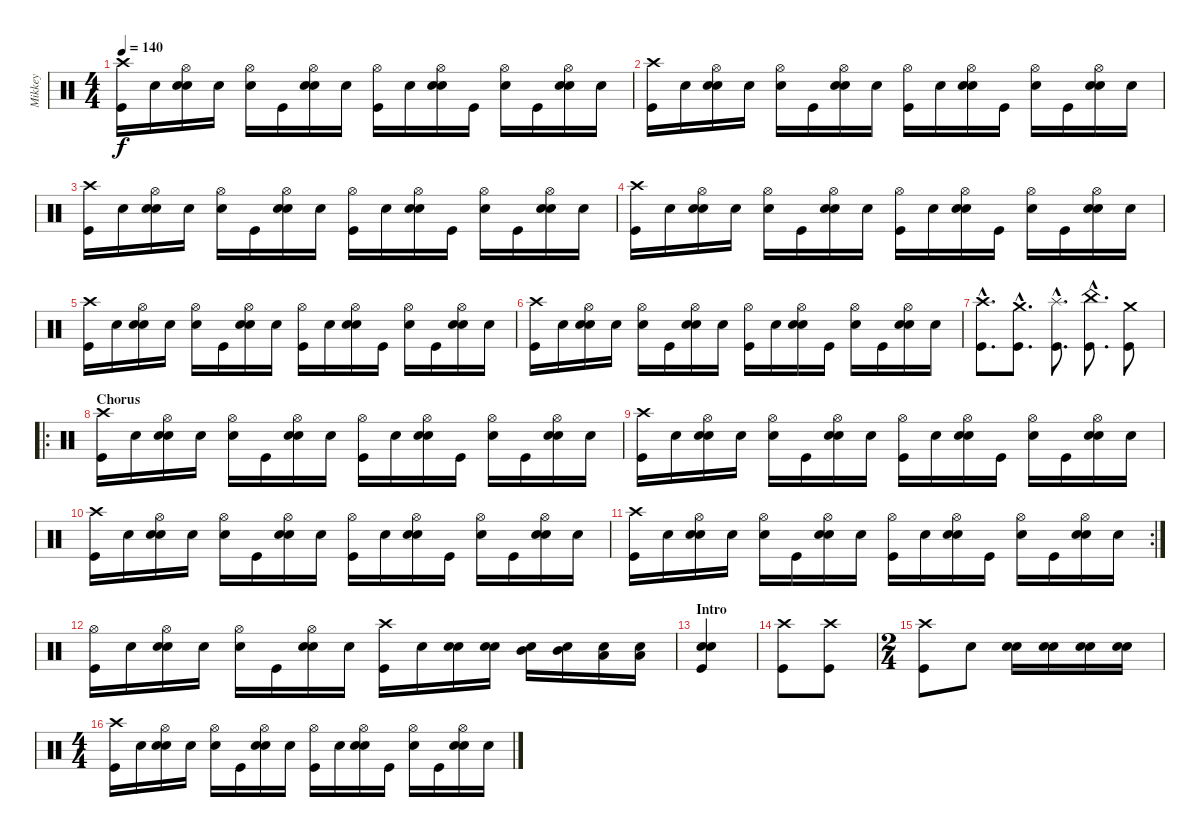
\track ("Mikkey" "Mikkey") {instrument percussion}
\staff {score}
\articulation defaults
\ts (4 4)
\tempo 140
\clef neutral
\ks c
("Crash high (hit)" "Kick (hit)").16{dy f} "Snare (hit)".16 ("Hi-Hat (open)" "Electric Snare (hit)" "Snare (hit)").16 "Snare (hit)".16 ("Hi-Hat (open)" "Snare (hit)").16 "Kick (hit)".16 ("Hi-Hat (open)" "Electric Snare (hit)" "Snare (hit)").16 "Snare (hit)".16 ("Hi-Hat (open)" "Kick (hit)").16 "Snare (hit)".16 ("Hi-Hat (open)" "Electric Snare (hit)" "Snare (hit)").16 "Kick (hit)".16 ("Hi-Hat (open)" "Snare (hit)").16 "Kick (hit)".16 ("Hi-Hat (open)" "Electric Snare (hit)" "Snare (hit)").16 "Snare (hit)".16 |
("Crash high (hit)" "Kick (hit)").16 "Snare (hit)".16 ("Hi-Hat (open)" "Electric Snare (hit)" "Snare (hit)").16 "Snare (hit)".16 ("Hi-Hat (open)" "Snare (hit)").16 "Kick (hit)".16 ("Hi-Hat (open)" "Electric Snare (hit)" "Snare (hit)").16 "Snare (hit)".16 ("Hi-Hat (open)" "Kick (hit)").16 "Snare (hit)".16 ("Hi-Hat (open)" "Electric Snare (hit)" "Snare (hit)").16 "Kick (hit)".16 ("Hi-Hat (open)" "Snare (hit)").16 "Kick (hit)".16 ("Hi-Hat (open)" "Electric Snare (hit)" "Snare (hit)").16 "Snare (hit)".16 |
("Crash high (hit)" "Kick (hit)").16 "Snare (hit)".16 ("Hi-Hat (open)" "Electric Snare (hit)" "Snare (hit)").16 "Snare (hit)".16 ("Hi-Hat (open)" "Snare (hit)").16 "Kick (hit)".16 ("Hi-Hat (open)" "Electric Snare (hit)" "Snare (hit)").16 "Snare (hit)".16 ("Hi-Hat (open)" "Kick (hit)").16 "Snare (hit)".16 ("Hi-Hat (open)" "Electric Snare (hit)" "Snare (hit)").16 "Kick (hit)".16 ("Hi-Hat (open)" "Snare (hit)").16 "Kick (hit)".16 ("Hi-Hat (open)" "Electric Snare (hit)" "Snare (hit)").16 "Snare (hit)".16 |
("Crash high (hit)" "Kick (hit)").16 "Snare (hit)".16 ("Hi-Hat (open)" "Electric Snare (hit)" "Snare (hit)").16 "Snare (hit)".16 ("Hi-Hat (open)" "Snare (hit)").16 "Kick (hit)".16 ("Hi-Hat (open)" "Electric Snare (hit)" "Snare (hit)").16 "Snare (hit)".16 ("Hi-Hat (open)" "Kick (hit)").16 "Snare (hit)".16 ("Hi-Hat (open)" "Electric Snare (hit)" "Snare (hit)").16 "Kick (hit)".16 ("Hi-Hat (open)" "Snare (hit)").16 "Kick (hit)".16 ("Hi-Hat (open)" "Electric Snare (hit)" "Snare (hit)").16 "Snare (hit)".16 |
("Crash high (hit)" "Kick (hit)").16 "Snare (hit)".16 ("Hi-Hat (open)" "Electric Snare (hit)" "Snare (hit)").16 "Snare (hit)".16 ("Hi-Hat (open)" "Snare (hit)").16 "Kick (hit)".16 ("Hi-Hat (open)" "Electric Snare (hit)" "Snare (hit)").16 "Snare (hit)".16 ("Hi-Hat (open)" "Kick (hit)").16 "Snare (hit)".16 ("Hi-Hat (open)" "Electric Snare (hit)" "Snare (hit)").16 "Kick (hit)".16 ("Hi-Hat (open)" "Snare (hit)").16 "Kick (hit)".16 ("Hi-Hat (open)" "Electric Snare (hit)" "Snare (hit)").16 "Snare (hit)".16 |
("Crash high (hit)" "Kick (hit)").16 "Snare (hit)".16 ("Hi-Hat (open)" "Electric Snare (hit)" "Snare (hit)").16 "Snare (hit)".16 ("Hi-Hat (open)" "Snare (hit)").16 "Kick (hit)".16 ("Hi-Hat (open)" "Electric Snare (hit)" "Snare (hit)").16 "Snare (hit)".16 ("Hi-Hat (open)" "Kick (hit)").16 "Snare (hit)".16 ("Hi-Hat (open)" "Electric Snare (hit)" "Snare (hit)").16 "Kick (hit)".16 ("Hi-Hat (open)" "Snare (hit)").16 "Kick (hit)".16 ("Hi-Hat (open)" "Electric Snare (hit)" "Snare (hit)").16 "Snare (hit)".16 |
("Crash high (hit)"{hac} "Kick (hit)"{hac}).8{d} ("Crash medium (hit)"{hac} "Kick (hit)"{hac}).8{d} ("Splash (hit)"{hac} "Kick (hit)"{hac}).8{d} ("China (hit)"{hac} "Kick (hit)"{hac}).8{d} ("Crash medium (hit)" "Kick (hit)").8 |
\ro
\section ("" "Chorus")
("Crash high (hit)" "Kick (hit)").16 "Snare (hit)".16 ("Hi-Hat (open)" "Electric Snare (hit)" "Snare (hit)").16 "Snare (hit)".16 ("Hi-Hat (open)" "Snare (hit)").16 "Kick (hit)".16 ("Hi-Hat (open)" "Electric Snare (hit)" "Snare (hit)").16 "Snare (hit)".16 ("Hi-Hat (open)" "Kick (hit)").16 "Snare (hit)".16 ("Hi-Hat (open)" "Electric Snare (hit)" "Snare (hit)").16 "Kick (hit)".16 ("Hi-Hat (open)" "Snare (hit)").16 "Kick (hit)".16 ("Hi-Hat (open)" "Electric Snare (hit)" "Snare (hit)").16 "Snare (hit)".16 |
("Crash high (hit)" "Kick (hit)").16 "Snare (hit)".16 ("Hi-Hat (open)" "Electric Snare (hit)" "Snare (hit)").16 "Snare (hit)".16 ("Hi-Hat (open)" "Snare (hit)").16 "Kick (hit)".16 ("Hi-Hat (open)" "Electric Snare (hit)" "Snare (hit)").16 "Snare (hit)".16 ("Hi-Hat (open)" "Kick (hit)").16 "Snare (hit)".16 ("Hi-Hat (open)" "Electric Snare (hit)" "Snare (hit)").16 "Kick (hit)".16 ("Hi-Hat (open)" "Snare (hit)").16 "Kick (hit)".16 ("Hi-Hat (open)" "Electric Snare (hit)" "Snare (hit)").16 "Snare (hit)".16 |
("Crash high (hit)" "Kick (hit)").16 "Snare (hit)".16 ("Hi-Hat (open)" "Electric Snare (hit)" "Snare (hit)").16 "Snare (hit)".16 ("Hi-Hat (open)" "Snare (hit)").16 "Kick (hit)".16 ("Hi-Hat (open)" "Electric Snare (hit)" "Snare (hit)").16 "Snare (hit)".16 ("Hi-Hat (open)" "Kick (hit)").16 "Snare (hit)".16 ("Hi-Hat (open)" "Electric Snare (hit)" "Snare (hit)").16 "Kick (hit)".16 ("Hi-Hat (open)" "Snare (hit)").16 "Kick (hit)".16 ("Hi-Hat (open)" "Electric Snare (hit)" "Snare (hit)").16 "Snare (hit)".16 |
\rc 2
("Crash high (hit)" "Kick (hit)").16 "Snare (hit)".16 ("Hi-Hat (open)" "Electric Snare (hit)" "Snare (hit)").16 "Snare (hit)".16 ("Hi-Hat (open)" "Snare (hit)").16 "Kick (hit)".16 ("Hi-Hat (open)" "Electric Snare (hit)" "Snare (hit)").16 "Snare (hit)".16 ("Hi-Hat (open)" "Kick (hit)").16 "Snare (hit)".16 ("Hi-Hat (open)" "Electric Snare (hit)" "Snare (hit)").16 "Kick (hit)".16 ("Hi-Hat (open)" "Snare (hit)").16 "Kick (hit)".16 ("Hi-Hat (open)" "Electric Snare (hit)" "Snare (hit)").16 "Snare (hit)".16 |
("Hi-Hat (open)" "Kick (hit)").16 "Snare (hit)".16 ("Hi-Hat (open)" "Electric Snare (hit)" "Snare (hit)").16 "Snare (hit)".16 ("Hi-Hat (open)" "Snare (hit)").16 "Kick (hit)".16 ("Hi-Hat (open)" "Electric Snare (hit)" "Snare (hit)").16 "Snare (hit)".16 ("Crash high (hit)" "Kick (hit)").16 "Snare (hit)".16 ("Electric Snare (hit)" "Snare (hit)").16 ("Electric Snare (hit)" "Snare (hit)").16 ("Mid Tom (hit)" "Snare (hit)").16 ("Mid Tom (hit)" "Snare (hit)").16 ("Low Tom (hit)" "Snare (hit)").16 ("Low Tom (hit)" "Snare (hit)").16 |
\section ("" "Intro")
("Electric Snare (hit)" "Electric Snare (hit)" "Kick (hit)").4 |
("Crash high (hit)" "Kick (hit)").8 ("Crash high (hit)" "Kick (hit)").8 |
\ts (2 4)
("Crash high (hit)" "Kick (hit)").8 "Snare (hit)".8 ("Electric Snare (hit)" "Snare (hit)").16 ("Electric Snare (hit)" "Snare (hit)").16 ("Electric Snare (hit)" "Snare (hit)").16 ("Electric Snare (hit)" "Snare (hit)").16 |
\ts (4 4)
("Crash high (hit)" "Kick (hit)").16 "Snare (hit)".16 ("Hi-Hat (open)" "Electric Snare (hit)" "Snare (hit)").16 "Snare (hit)".16 ("Hi-Hat (open)" "Snare (hit)").16 "Kick (hit)".16 ("Hi-Hat (open)" "Electric Snare (hit)" "Snare (hit)").16 "Snare (hit)".16 ("Hi-Hat (open)" "Kick (hit)").16 "Snare (hit)".16 ("Hi-Hat (open)" "Electric Snare (hit)" "Snare (hit)").16 "Kick (hit)".16 ("Hi-Hat (open)" "Snare (hit)").16 "Kick (hit)".16 ("Hi-Hat (open)" "Electric Snare (hit)" "Snare (hit)").16 "Snare (hit)".16
